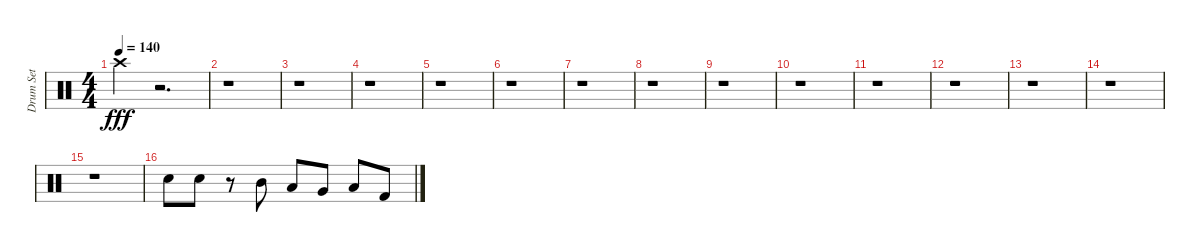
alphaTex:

\track ("Drum Set" "Drum Set") {instrument percussion}
\staff {score}
\articulation defaults
\ts (4 4)
\tempo 140
\clef neutral
\ks c "Crash high (hit)".4{dy fff}
r.2{d} |
r.1 |
r.1 |
r.1 |
r.1 |
r.1 |
r.1 |
r.1 |
r.1 |
r.1 |
r.1 |
r.1 |
r.1 |
r.1 |
r.1 |
"Electric Snare (hit)".8 "Electric Snare (hit)".8 r.8 "Mid Tom (hit)".8 "Low Tom (hit)".8 "Very Low Tom (hit)".8 "Low Floor Tom (hit)".8 "Kick (hit) 2".8
